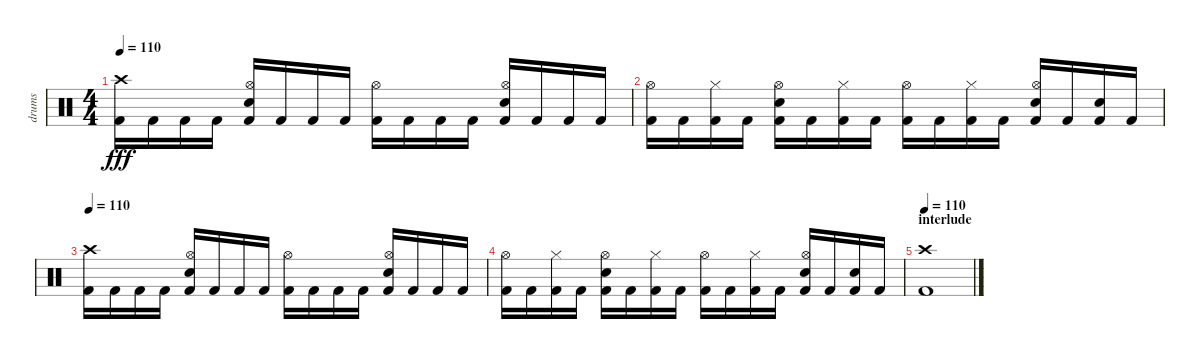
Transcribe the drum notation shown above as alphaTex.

\track ("drums" "drums") {instrument percussion}
\staff {score}
\articulation defaults
\ts (4 4)
\tempo 110
\clef neutral
\ks c
("Crash high (hit)" "Kick (hit) 2").16{dy fff} "Kick (hit) 2".16 "Kick (hit) 2".16 "Kick (hit) 2".16 ("Hi-Hat (open)" "Snare (hit) 2" "Kick (hit) 2").16 "Kick (hit) 2".16 "Kick (hit) 2".16 "Kick (hit) 2".16 ("Hi-Hat (open)" "Kick (hit) 2").16 "Kick (hit) 2".16 "Kick (hit) 2".16 "Kick (hit) 2".16 ("Hi-Hat (open)" "Snare (hit) 2" "Kick (hit) 2").16 "Kick (hit) 2".16 "Kick (hit) 2".16 "Kick (hit) 2".16 |
("Hi-Hat (open)" "Kick (hit) 2").16 "Kick (hit) 2".16 ("Hi-Hat (closed)" "Kick (hit) 2").16 "Kick (hit) 2".16 ("Hi-Hat (open)" "Snare (hit) 2" "Kick (hit) 2").16 "Kick (hit) 2".16 ("Hi-Hat (closed)" "Kick (hit) 2").16 "Kick (hit) 2".16 ("Hi-Hat (open)" "Kick (hit) 2").16 "Kick (hit) 2".16 ("Hi-Hat (closed)" "Kick (hit) 2").16 "Kick (hit) 2".16 ("Hi-Hat (open)" "Snare (hit) 2" "Kick (hit) 2").16 "Kick (hit) 2".16 ("Snare (hit) 2" "Kick (hit) 2").16 "Kick (hit) 2".16 |
\tempo 110
("Crash high (hit)" "Kick (hit) 2").16 "Kick (hit) 2".16 "Kick (hit) 2".16 "Kick (hit) 2".16 ("Hi-Hat (open)" "Snare (hit) 2" "Kick (hit) 2").16 "Kick (hit) 2".16 "Kick (hit) 2".16 "Kick (hit) 2".16 ("Hi-Hat (open)" "Kick (hit) 2").16 "Kick (hit) 2".16 "Kick (hit) 2".16 "Kick (hit) 2".16 ("Hi-Hat (open)" "Snare (hit) 2" "Kick (hit) 2").16 "Kick (hit) 2".16 "Kick (hit) 2".16 "Kick (hit) 2".16 |
("Hi-Hat (open)" "Kick (hit) 2").16 "Kick (hit) 2".16 ("Hi-Hat (closed)" "Kick (hit) 2").16 "Kick (hit) 2".16 ("Hi-Hat (open)" "Snare (hit) 2" "Kick (hit) 2").16 "Kick (hit) 2".16 ("Hi-Hat (closed)" "Kick (hit) 2").16 "Kick (hit) 2".16 ("Hi-Hat (open)" "Kick (hit) 2").16 "Kick (hit) 2".16 ("Hi-Hat (closed)" "Kick (hit) 2").16 "Kick (hit) 2".16 ("Hi-Hat (open)" "Snare (hit) 2" "Kick (hit) 2").16 "Kick (hit) 2".16 ("Snare (hit) 2" "Kick (hit) 2").16 "Kick (hit) 2".16 |
\section ("" "interlude")
\tempo 110
("Crash high (hit)" "Kick (hit) 2").1
